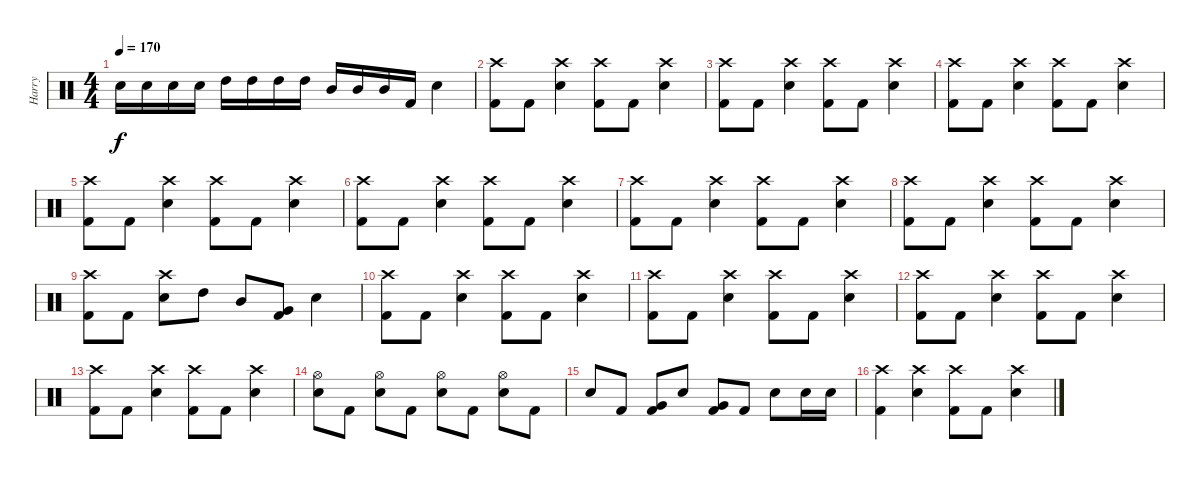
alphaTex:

\track ("Harry" "Harry") {instrument percussion}
\staff {score}
\articulation defaults
\ts (4 4)
\tempo 170
\clef neutral
\ks c "Snare (hit) 2".16{dy f} "Snare (hit) 2".16 "Snare (hit) 2".16 "Snare (hit) 2".16 "High Tom (hit)".16 "High Tom (hit)".16 "High Tom (hit)".16 "High Tom (hit)".16 "Mid Tom (hit)".16 "Mid Tom (hit)".16 "Mid Tom (hit)".16 "Kick (hit) 2".16 "Snare (hit) 2".4
|
("Kick (hit) 2" "Crash high (hit)").8 "Kick (hit) 2".8 ("Snare (hit) 2" "Crash high (hit)").4 ("Kick (hit) 2" "Crash high (hit)").8 "Kick (hit) 2".8 ("Snare (hit) 2" "Crash high (hit)").4 |
("Kick (hit) 2" "Crash high (hit)").8 "Kick (hit) 2".8 ("Snare (hit) 2" "Crash high (hit)").4 ("Kick (hit) 2" "Crash high (hit)").8 "Kick (hit) 2".8 ("Snare (hit) 2" "Crash high (hit)").4 |
("Kick (hit) 2" "Crash high (hit)").8 "Kick (hit) 2".8 ("Snare (hit) 2" "Crash high (hit)").4 ("Kick (hit) 2" "Crash high (hit)").8 "Kick (hit) 2".8 ("Snare (hit) 2" "Crash high (hit)").4 |
("Kick (hit) 2" "Crash high (hit)").8 "Kick (hit) 2".8 ("Snare (hit) 2" "Crash high (hit)").4 ("Kick (hit) 2" "Crash high (hit)").8 "Kick (hit) 2".8 ("Snare (hit) 2" "Crash high (hit)").4 |
("Kick (hit) 2" "Crash high (hit)").8 "Kick (hit) 2".8 ("Snare (hit) 2" "Crash high (hit)").4 ("Kick (hit) 2" "Crash high (hit)").8 "Kick (hit) 2".8 ("Snare (hit) 2" "Crash high (hit)").4 |
("Kick (hit) 2" "Crash high (hit)").8 "Kick (hit) 2".8 ("Snare (hit) 2" "Crash high (hit)").4 ("Kick (hit) 2" "Crash high (hit)").8 "Kick (hit) 2".8 ("Snare (hit) 2" "Crash high (hit)").4 |
("Kick (hit) 2" "Crash high (hit)").8 "Kick (hit) 2".8 ("Snare (hit) 2" "Crash high (hit)").4 ("Kick (hit) 2" "Crash high (hit)").8 "Kick (hit) 2".8 ("Snare (hit) 2" "Crash high (hit)").4 |
("Kick (hit) 2" "Crash high (hit)").8 "Kick (hit) 2".8 ("Snare (hit) 2" "Crash high (hit)").8 "High Tom (hit)".8 "Mid Tom (hit)".8 ("Very Low Tom (hit)" "Kick (hit) 2").8 "Snare (hit) 2".4 |
("Kick (hit) 2" "Crash high (hit)").8 "Kick (hit) 2".8 ("Snare (hit) 2" "Crash high (hit)").4 ("Kick (hit) 2" "Crash high (hit)").8 "Kick (hit) 2".8 ("Snare (hit) 2" "Crash high (hit)").4 |
("Kick (hit) 2" "Crash high (hit)").8 "Kick (hit) 2".8 ("Snare (hit) 2" "Crash high (hit)").4 ("Kick (hit) 2" "Crash high (hit)").8 "Kick (hit) 2".8 ("Snare (hit) 2" "Crash high (hit)").4 |
("Kick (hit) 2" "Crash high (hit)").8 "Kick (hit) 2".8 ("Snare (hit) 2" "Crash high (hit)").4 ("Kick (hit) 2" "Crash high (hit)").8 "Kick (hit) 2".8 ("Snare (hit) 2" "Crash high (hit)").4 |
("Kick (hit) 2" "Crash high (hit)").8 "Kick (hit) 2".8 ("Snare (hit) 2" "Crash high (hit)").4 ("Kick (hit) 2" "Crash high (hit)").8 "Kick (hit) 2".8 ("Snare (hit) 2" "Crash high (hit)").4 |
("Hi-Hat (open)" "Snare (hit) 2").8 "Kick (hit) 2".8 ("Hi-Hat (open)" "Snare (hit) 2").8 "Kick (hit) 2".8 ("Hi-Hat (open)" "Snare (hit) 2").8 "Kick (hit) 2".8 ("Hi-Hat (open)" "Snare (hit) 2").8 "Kick (hit) 2".8 |
"Snare (hit) 2".8 "Kick (hit) 2".8 ("Kick (hit) 2" "Very Low Tom (hit)").8 "Snare (hit) 2".8 ("Kick (hit) 2" "Very Low Tom (hit)").8 "Kick (hit) 2".8 "Snare (hit) 2".8 "Snare (hit) 2".16 "Snare (hit) 2".16 |
("Kick (hit) 2" "Crash high (hit)").4 ("Snare (hit) 2" "Crash high (hit)").4 ("Kick (hit) 2" "Crash high (hit)").8 "Kick (hit) 2".8 ("Snare (hit) 2" "Crash high (hit)").4
